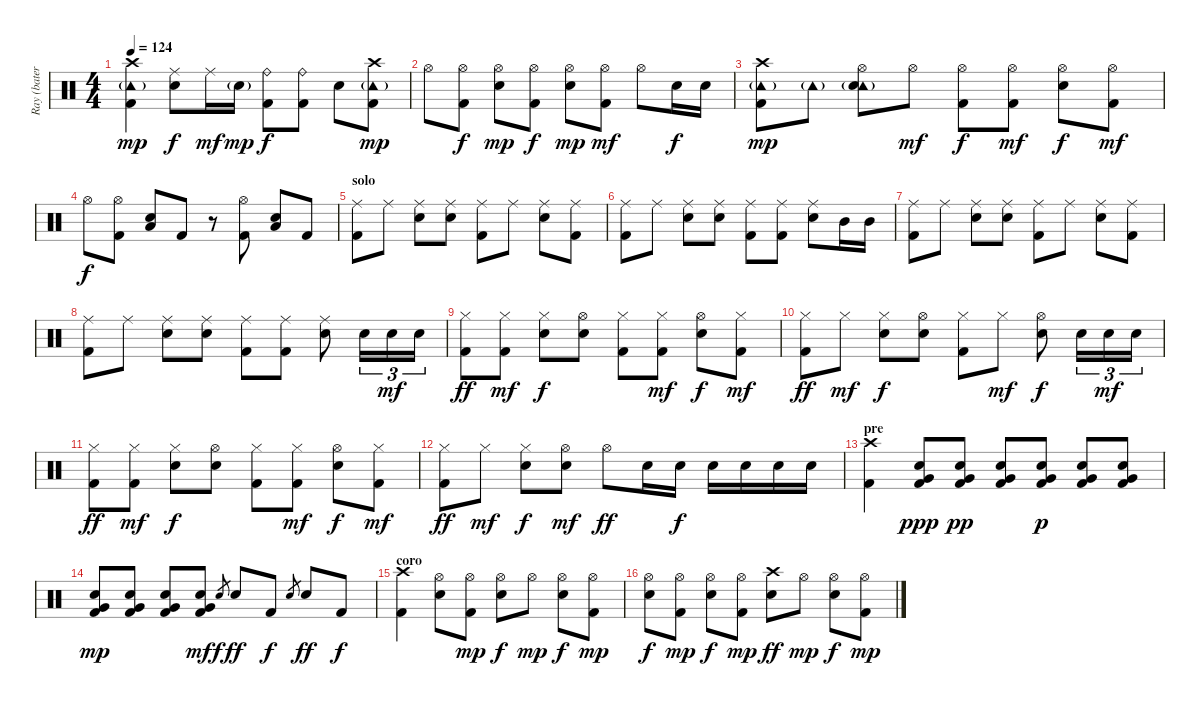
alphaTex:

\track ("Ray (batería)" "Ray (bater") {instrument percussion}
\staff {score}
\articulation defaults
\ts (4 4)
\tempo 124
\clef neutral
\ks c
("Crash high (hit)" "Tambourine (hit)"{g} "Kick (hit) 2").4{dy mp} ("Ride (middle)" "Snare (hit) 2").8{dy f} "Ride (middle)".16{dy mf} "Snare (hit) 2"{g}.16{dy mp} ("Ride (bell)" "Kick (hit) 2").8{dy f} ("Ride (bell)" "Kick (hit) 2").8 "Snare (hit) 2".8 ("Crash high (hit)" "Tambourine (hit)"{g} "Kick (hit) 2").8{dy mp} |
"Hi-Hat (open)".8 ("Hi-Hat (open)" "Kick (hit) 2").8{dy f} ("Hi-Hat (open)" "Snare (hit) 2").8{dy mp} ("Hi-Hat (open)" "Kick (hit) 2").8{dy f} ("Hi-Hat (open)" "Snare (hit) 2").8{dy mp} ("Hi-Hat (open)" "Kick (hit) 2").8{dy mf} "Hi-Hat (open)".8 "Snare (hit) 2".16{dy f} "Snare (hit) 2".16 |
("Crash high (hit)" "Tambourine (hit)"{g} "Kick (hit) 2").8{dy mp} "Tambourine (hit)"{g}.8 ("Hi-Hat (open)" "Tambourine (hit)"{g} "Snare (hit) 2").8 "Hi-Hat (open)".8{dy mf} ("Hi-Hat (open)" "Kick (hit) 2").8{dy f} ("Hi-Hat (open)" "Kick (hit) 2").8{dy mf} ("Hi-Hat (open)" "Snare (hit) 2").8{dy f} ("Hi-Hat (open)" "Kick (hit) 2").8{dy mf} |
"Hi-Hat (open)".8{dy f} ("Hi-Hat (open)" "Kick (hit) 2").8 ("Snare (hit) 2" "Low Tom (hit)").8 "Kick (hit) 2".8 r.8 ("Hi-Hat (open)" "Kick (hit) 2").8 ("Snare (hit) 2" "Low Tom (hit)").8 "Kick (hit) 2".8 |
\section ("" "solo")
("Ride (middle)" "Kick (hit) 2").8 "Ride (middle)".8 ("Ride (middle)" "Snare (hit) 2").8 ("Ride (middle)" "Snare (hit) 2").8 ("Ride (middle)" "Kick (hit) 2").8 "Ride (middle)".8 ("Ride (middle)" "Snare (hit) 2").8 ("Ride (middle)" "Kick (hit) 2").8 |
("Ride (middle)" "Kick (hit) 2").8 "Ride (middle)".8 ("Ride (middle)" "Snare (hit) 2").8 ("Ride (middle)" "Snare (hit) 2").8 ("Ride (middle)" "Kick (hit) 2").8 ("Ride (middle)" "Kick (hit) 2").8 ("Ride (middle)" "Snare (hit) 2").8 "Mid Tom (hit)".16 "Mid Tom (hit)".16 |
("Ride (middle)" "Kick (hit) 2").8 "Ride (middle)".8 ("Ride (middle)" "Snare (hit) 2").8 ("Ride (middle)" "Snare (hit) 2").8 ("Ride (middle)" "Kick (hit) 2").8 "Ride (middle)".8 ("Ride (middle)" "Snare (hit) 2").8 ("Ride (middle)" "Kick (hit) 2").8 |
("Ride (middle)" "Kick (hit) 2").8 "Ride (middle)".8 ("Ride (middle)" "Snare (hit) 2").8 ("Ride (middle)" "Snare (hit) 2").8 ("Ride (middle)" "Kick (hit) 2").8 ("Ride (middle)" "Kick (hit) 2").8 ("Ride (middle)" "Snare (hit) 2").8 "Snare (hit) 2".16{tu (3 2)} "Snare (hit) 2".16{tu (3 2) dy mf} "Snare (hit) 2".16{tu (3 2)} |
("Hi-Hat (closed)" "Kick (hit) 2").8{dy ff} ("Hi-Hat (closed)" "Kick (hit) 2").8{dy mf} ("Hi-Hat (closed)" "Snare (hit) 2").8{dy f} ("Hi-Hat (open)" "Snare (hit) 2").8 ("Hi-Hat (closed)" "Kick (hit) 2").8 ("Hi-Hat (closed)" "Kick (hit) 2").8{dy mf} ("Hi-Hat (open)" "Snare (hit) 2").8{dy f} ("Hi-Hat (closed)" "Kick (hit) 2").8{dy mf} |
("Hi-Hat (closed)" "Kick (hit) 2").8{dy ff} "Hi-Hat (closed)".8{dy mf} ("Hi-Hat (closed)" "Snare (hit) 2").8{dy f} ("Hi-Hat (open)" "Snare (hit) 2").8 ("Hi-Hat (closed)" "Kick (hit) 2").8 "Hi-Hat (closed)".8{dy mf} ("Hi-Hat (open)" "Snare (hit) 2").8{dy f} "Snare (hit) 2".16{tu (3 2)} "Snare (hit) 2".16{tu (3 2) dy mf} "Snare (hit) 2".16{tu (3 2)} |
("Hi-Hat (closed)" "Kick (hit) 2").8{dy ff} ("Hi-Hat (closed)" "Kick (hit) 2").8{dy mf} ("Hi-Hat (closed)" "Snare (hit) 2").8{dy f} ("Hi-Hat (open)" "Snare (hit) 2").8 ("Hi-Hat (closed)" "Kick (hit) 2").8 ("Hi-Hat (closed)" "Kick (hit) 2").8{dy mf} ("Hi-Hat (open)" "Snare (hit) 2").8{dy f} ("Hi-Hat (closed)" "Kick (hit) 2").8{dy mf} |
("Hi-Hat (closed)" "Kick (hit) 2").8{dy ff} "Hi-Hat (closed)".8{dy mf} ("Hi-Hat (closed)" "Snare (hit) 2").8{dy f} ("Hi-Hat (open)" "Snare (hit) 2").8{dy mf} "Hi-Hat (open)".8{dy ff} "Snare (hit) 2".16 "Snare (hit) 2".16{dy f} "Snare (hit) 2".16 "Snare (hit) 2".16 "Snare (hit) 2".16 "Snare (hit) 2".16 |
\section ("" "pre")
("Crash high (hit)" "Kick (hit) 2").4 ("Snare (hit) 2" "Very Low Tom (hit)" "Kick (hit) 2").8{dy ppp} ("Snare (hit) 2" "Very Low Tom (hit)" "Kick (hit) 2").8{dy pp} ("Snare (hit) 2" "Very Low Tom (hit)" "Kick (hit) 2").8 ("Snare (hit) 2" "Very Low Tom (hit)" "Kick (hit) 2").8{dy p} ("Snare (hit) 2" "Very Low Tom (hit)" "Kick (hit) 2").8 ("Snare (hit) 2" "Very Low Tom (hit)" "Kick (hit) 2").8 |
("Snare (hit) 2" "Very Low Tom (hit)" "Kick (hit) 2").8{dy mp} ("Snare (hit) 2" "Very Low Tom (hit)" "Kick (hit) 2").8 ("Snare (hit) 2" "Very Low Tom (hit)" "Kick (hit) 2").8 ("Snare (hit) 2" "Very Low Tom (hit)" "Kick (hit) 2").8{dy mf} "Snare (hit) 2".8{gr dy f} "Snare (hit) 2".8{dy ff} "Kick (hit) 2".8{dy f} "Snare (hit) 2".8{gr} "Snare (hit) 2".8{dy ff} "Kick (hit) 2".8{dy f} |
\section ("" "coro")
("Crash high (hit)" "Kick (hit) 2").4 ("Hi-Hat (open)" "Snare (hit) 2").8 ("Hi-Hat (open)" "Kick (hit) 2").8{dy mp} ("Hi-Hat (open)" "Snare (hit) 2").8{dy f} "Hi-Hat (open)".8{dy mp} ("Hi-Hat (open)" "Snare (hit) 2").8{dy f} ("Hi-Hat (open)" "Kick (hit) 2").8{dy mp} |
("Hi-Hat (open)" "Snare (hit) 2").8{dy f} ("Hi-Hat (open)" "Kick (hit) 2").8{dy mp} ("Hi-Hat (open)" "Snare (hit) 2").8{dy f} ("Hi-Hat (open)" "Kick (hit) 2").8{dy mp} ("Crash high (hit)" "Snare (hit) 2").8{dy ff} "Hi-Hat (open)".8{dy mp} ("Hi-Hat (open)" "Snare (hit) 2").8{dy f} ("Hi-Hat (open)" "Kick (hit) 2").8{dy mp}
